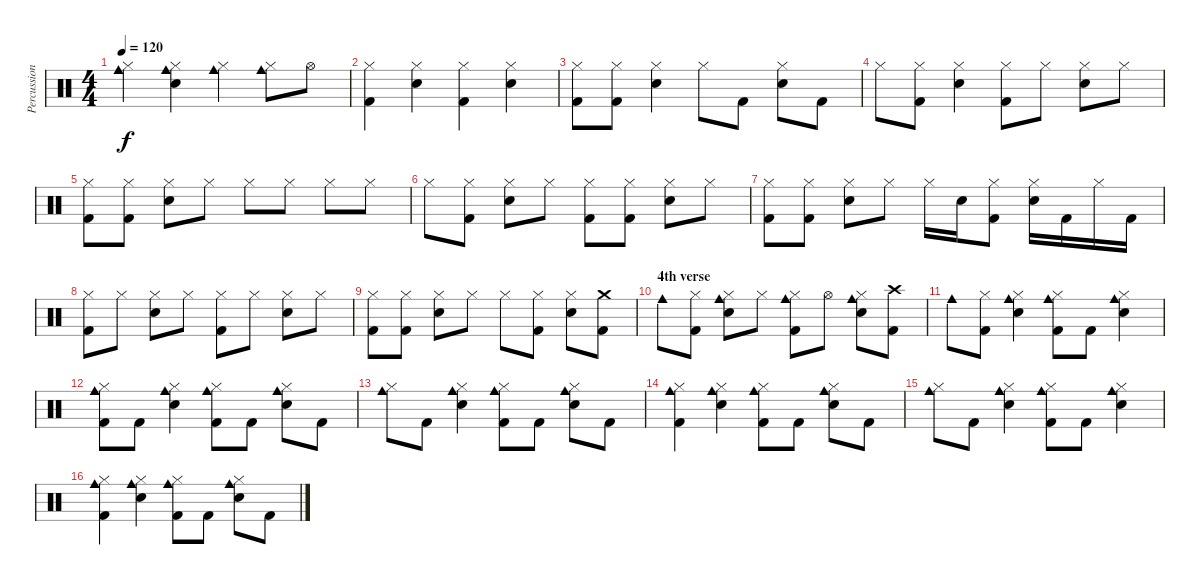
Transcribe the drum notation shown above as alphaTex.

\track ("Percussions" "Percussion") {instrument percussion}
\staff {score}
\articulation defaults
\ts (4 4)
\tempo 120
\clef neutral
\ks c
("Cowbell medium (hit)" "Hi-Hat (closed)").4{dy f} ("Cowbell medium (hit)" "Hi-Hat (closed)" "Snare (hit) 2").4 ("Cowbell medium (hit)" "Hi-Hat (closed)").4 ("Cowbell medium (hit)" "Hi-Hat (closed)").8 "Hi-Hat (open)".8 |
("Hi-Hat (closed)" "Kick (hit) 2").4 ("Hi-Hat (closed)" "Snare (hit) 2").4 ("Hi-Hat (closed)" "Kick (hit) 2").4 ("Hi-Hat (closed)" "Snare (hit) 2").4 |
("Hi-Hat (closed)" "Kick (hit) 2").8 ("Hi-Hat (closed)" "Kick (hit) 2").8 ("Hi-Hat (closed)" "Snare (hit) 2").4 "Hi-Hat (closed)".8 "Kick (hit) 2".8 ("Hi-Hat (closed)" "Snare (hit) 2").8 "Kick (hit) 2".8 |
"Hi-Hat (closed)".8 ("Hi-Hat (closed)" "Kick (hit) 2").8 ("Hi-Hat (closed)" "Snare (hit) 2").4 ("Hi-Hat (closed)" "Kick (hit) 2").8 "Hi-Hat (closed)".8 ("Hi-Hat (closed)" "Snare (hit) 2").8 "Hi-Hat (closed)".8 |
("Hi-Hat (closed)" "Kick (hit) 2").8 ("Hi-Hat (closed)" "Kick (hit) 2").8 ("Hi-Hat (closed)" "Snare (hit) 2").8 "Hi-Hat (closed)".8 "Hi-Hat (closed)".8 "Hi-Hat (closed)".8 "Hi-Hat (closed)".8 "Hi-Hat (closed)".8 |
"Hi-Hat (closed)".8 ("Hi-Hat (closed)" "Kick (hit) 2").8 ("Hi-Hat (closed)" "Snare (hit) 2").8 "Hi-Hat (closed)".8 ("Hi-Hat (closed)" "Kick (hit) 2").8 ("Hi-Hat (closed)" "Kick (hit) 2").8 ("Hi-Hat (closed)" "Snare (hit) 2").8 "Hi-Hat (closed)".8 |
("Hi-Hat (closed)" "Kick (hit) 2").8 ("Hi-Hat (closed)" "Kick (hit) 2").8 ("Hi-Hat (closed)" "Snare (hit) 2").8 "Hi-Hat (closed)".8 "Hi-Hat (closed)".16 "Snare (hit) 2".16 ("Hi-Hat (closed)" "Kick (hit) 2").8 ("Hi-Hat (closed)" "Snare (hit) 2").16 "Kick (hit) 2".16 "Hi-Hat (closed)".16 "Kick (hit) 2".16 |
("Hi-Hat (closed)" "Kick (hit) 2").8 "Hi-Hat (closed)".8 ("Hi-Hat (closed)" "Snare (hit) 2").8 "Hi-Hat (closed)".8 ("Hi-Hat (closed)" "Kick (hit) 2").8 "Hi-Hat (closed)".8 ("Hi-Hat (closed)" "Snare (hit) 2").8 "Hi-Hat (closed)".8 |
("Hi-Hat (closed)" "Kick (hit) 2").8 ("Hi-Hat (closed)" "Kick (hit) 2").8 ("Hi-Hat (closed)" "Snare (hit) 2").8 "Hi-Hat (closed)".8 "Hi-Hat (closed)".8 ("Hi-Hat (closed)" "Kick (hit) 2").8 ("Hi-Hat (closed)" "Snare (hit) 2").8 ("Crash medium (hit)" "Kick (hit) 2").8 |
\section ("" "4th verse")
"Cowbell medium (hit)".8 ("Hi-Hat (closed)" "Kick (hit) 2").8 ("Cowbell medium (hit)" "Hi-Hat (closed)" "Snare (hit) 2").8 "Hi-Hat (closed)".8 ("Cowbell medium (hit)" "Hi-Hat (closed)" "Kick (hit) 2").8 "Hi-Hat (open)".8 ("Cowbell medium (hit)" "Hi-Hat (closed)" "Snare (hit) 2").8 ("Crash high (hit)" "Kick (hit) 2").8 |
"Cowbell medium (hit)".8 ("Hi-Hat (closed)" "Kick (hit) 2").8 ("Cowbell medium (hit)" "Hi-Hat (closed)" "Snare (hit) 2").4 ("Cowbell medium (hit)" "Hi-Hat (closed)" "Kick (hit) 2").8 "Kick (hit) 2".8 ("Cowbell medium (hit)" "Hi-Hat (closed)" "Snare (hit) 2").4 |
("Cowbell medium (hit)" "Hi-Hat (closed)" "Kick (hit) 2").8 "Kick (hit) 2".8 ("Cowbell medium (hit)" "Hi-Hat (closed)" "Snare (hit) 2").4 ("Cowbell medium (hit)" "Hi-Hat (closed)" "Kick (hit) 2").8 "Kick (hit) 2".8 ("Cowbell medium (hit)" "Hi-Hat (closed)" "Snare (hit) 2").8 "Kick (hit) 2".8 |
("Cowbell medium (hit)" "Hi-Hat (closed)").8 "Kick (hit) 2".8 ("Cowbell medium (hit)" "Hi-Hat (closed)" "Snare (hit) 2").4 ("Cowbell medium (hit)" "Hi-Hat (closed)" "Kick (hit) 2").8 "Kick (hit) 2".8 ("Cowbell medium (hit)" "Hi-Hat (closed)" "Snare (hit) 2").8 "Kick (hit) 2".8 |
("Cowbell medium (hit)" "Hi-Hat (closed)" "Kick (hit) 2").4 ("Cowbell medium (hit)" "Hi-Hat (closed)" "Snare (hit) 2").4 ("Cowbell medium (hit)" "Hi-Hat (closed)" "Kick (hit) 2").8 "Kick (hit) 2".8 ("Cowbell medium (hit)" "Hi-Hat (closed)" "Snare (hit) 2").8 "Kick (hit) 2".8 |
("Cowbell medium (hit)" "Hi-Hat (closed)").8 "Kick (hit) 2".8 ("Cowbell medium (hit)" "Hi-Hat (closed)" "Snare (hit) 2").4 ("Cowbell medium (hit)" "Hi-Hat (closed)" "Kick (hit) 2").8 "Kick (hit) 2".8 ("Cowbell medium (hit)" "Hi-Hat (closed)" "Snare (hit) 2").4 |
("Cowbell medium (hit)" "Hi-Hat (closed)" "Kick (hit) 2").4 ("Cowbell medium (hit)" "Hi-Hat (closed)" "Snare (hit) 2").4 ("Cowbell medium (hit)" "Hi-Hat (closed)" "Kick (hit) 2").8 "Kick (hit) 2".8 ("Cowbell medium (hit)" "Hi-Hat (closed)" "Snare (hit) 2").8 "Kick (hit) 2".8
